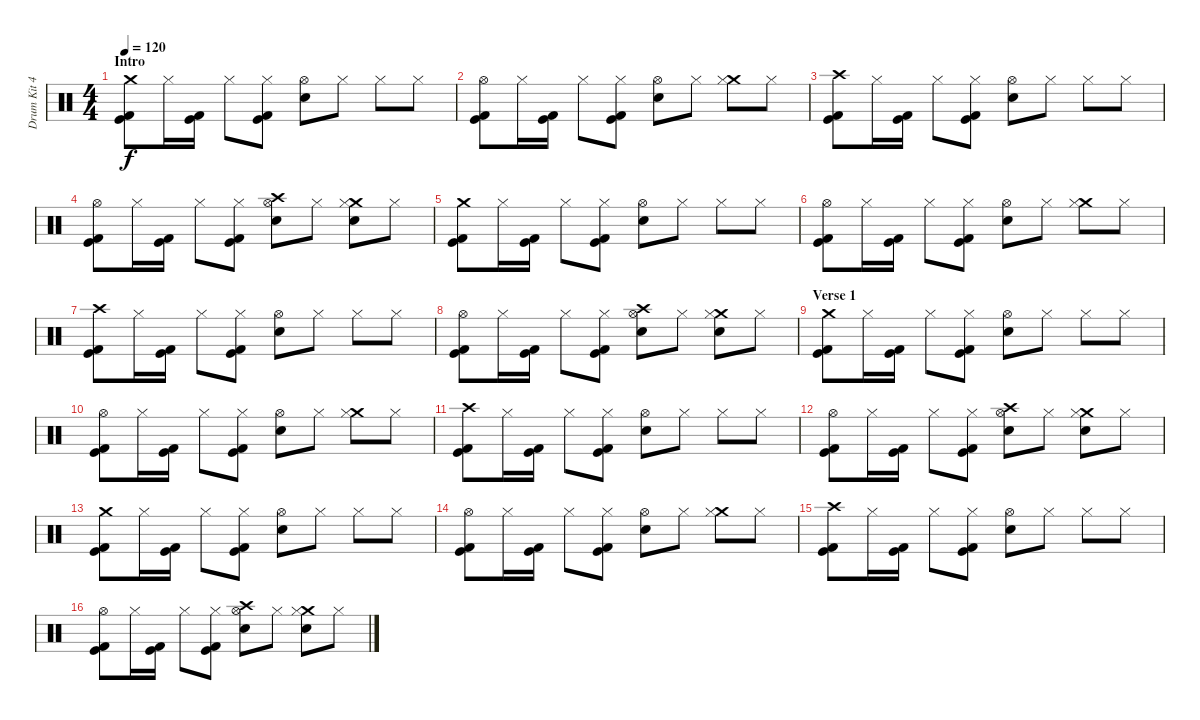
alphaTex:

\track ("Drum Kit 42" "Drum Kit 4") {instrument percussion}
\staff {score}
\articulation defaults
\ts (4 4)
\section ("" "Intro")
\tempo 120
\clef neutral
\ks c
("Crash medium (hit)" "Kick (hit)" "Kick (hit) 2").8{dy f} "Hi-Hat (closed)".16 ("Kick (hit)" "Kick (hit) 2").16 "Hi-Hat (closed)".8 ("Hi-Hat (closed)" "Kick (hit)" "Kick (hit) 2").8 ("Hi-Hat (open)" "Snare (hit) 2").8 "Hi-Hat (closed)".8 "Hi-Hat (closed)".8 "Hi-Hat (closed)".8 |
("Hi-Hat (open)" "Kick (hit)" "Kick (hit) 2").8 "Hi-Hat (closed)".16 ("Kick (hit)" "Kick (hit) 2").16 "Hi-Hat (closed)".8 ("Hi-Hat (closed)" "Kick (hit)" "Kick (hit) 2").8 ("Hi-Hat (open)" "Snare (hit) 2").8 "Hi-Hat (closed)".8 ("Crash medium (hit)" "Hi-Hat (closed)").8 "Hi-Hat (closed)".8 |
("Crash high (hit)" "Kick (hit)" "Kick (hit) 2").8 "Hi-Hat (closed)".16 ("Kick (hit)" "Kick (hit) 2").16 "Hi-Hat (closed)".8 ("Hi-Hat (closed)" "Kick (hit)" "Kick (hit) 2").8 ("Hi-Hat (open)" "Snare (hit) 2").8 "Hi-Hat (closed)".8 "Hi-Hat (closed)".8 "Hi-Hat (closed)".8 |
("Hi-Hat (open)" "Kick (hit)" "Kick (hit) 2").8 "Hi-Hat (closed)".16 ("Kick (hit)" "Kick (hit) 2").16 "Hi-Hat (closed)".8 ("Hi-Hat (closed)" "Kick (hit)" "Kick (hit) 2").8 ("Crash high (hit)" "Hi-Hat (open)" "Snare (hit) 2").8 "Hi-Hat (closed)".8 ("Crash medium (hit)" "Hi-Hat (closed)" "Snare (hit) 2").8 "Hi-Hat (closed)".8 |
("Crash medium (hit)" "Kick (hit)" "Kick (hit) 2").8 "Hi-Hat (closed)".16 ("Kick (hit)" "Kick (hit) 2").16 "Hi-Hat (closed)".8 ("Hi-Hat (closed)" "Kick (hit)" "Kick (hit) 2").8 ("Hi-Hat (open)" "Snare (hit) 2").8 "Hi-Hat (closed)".8 "Hi-Hat (closed)".8 "Hi-Hat (closed)".8 |
("Hi-Hat (open)" "Kick (hit)" "Kick (hit) 2").8 "Hi-Hat (closed)".16 ("Kick (hit)" "Kick (hit) 2").16 "Hi-Hat (closed)".8 ("Hi-Hat (closed)" "Kick (hit)" "Kick (hit) 2").8 ("Hi-Hat (open)" "Snare (hit) 2").8 "Hi-Hat (closed)".8 ("Crash medium (hit)" "Hi-Hat (closed)").8 "Hi-Hat (closed)".8 |
("Crash high (hit)" "Kick (hit)" "Kick (hit) 2").8 "Hi-Hat (closed)".16 ("Kick (hit)" "Kick (hit) 2").16 "Hi-Hat (closed)".8 ("Hi-Hat (closed)" "Kick (hit)" "Kick (hit) 2").8 ("Hi-Hat (open)" "Snare (hit) 2").8 "Hi-Hat (closed)".8 "Hi-Hat (closed)".8 "Hi-Hat (closed)".8 |
("Hi-Hat (open)" "Kick (hit)" "Kick (hit) 2").8 "Hi-Hat (closed)".16 ("Kick (hit)" "Kick (hit) 2").16 "Hi-Hat (closed)".8 ("Hi-Hat (closed)" "Kick (hit)" "Kick (hit) 2").8 ("Crash high (hit)" "Hi-Hat (open)" "Snare (hit) 2").8 "Hi-Hat (closed)".8 ("Crash medium (hit)" "Hi-Hat (closed)" "Snare (hit) 2").8 "Hi-Hat (closed)".8 |
\section ("" "Verse 1")
("Crash medium (hit)" "Kick (hit)" "Kick (hit) 2").8 "Hi-Hat (closed)".16 ("Kick (hit)" "Kick (hit) 2").16 "Hi-Hat (closed)".8 ("Hi-Hat (closed)" "Kick (hit)" "Kick (hit) 2").8 ("Hi-Hat (open)" "Snare (hit) 2").8 "Hi-Hat (closed)".8 "Hi-Hat (closed)".8 "Hi-Hat (closed)".8 |
("Hi-Hat (open)" "Kick (hit)" "Kick (hit) 2").8 "Hi-Hat (closed)".16 ("Kick (hit)" "Kick (hit) 2").16 "Hi-Hat (closed)".8 ("Hi-Hat (closed)" "Kick (hit)" "Kick (hit) 2").8 ("Hi-Hat (open)" "Snare (hit) 2").8 "Hi-Hat (closed)".8 ("Crash medium (hit)" "Hi-Hat (closed)").8 "Hi-Hat (closed)".8 |
("Crash high (hit)" "Kick (hit)" "Kick (hit) 2").8 "Hi-Hat (closed)".16 ("Kick (hit)" "Kick (hit) 2").16 "Hi-Hat (closed)".8 ("Hi-Hat (closed)" "Kick (hit)" "Kick (hit) 2").8 ("Hi-Hat (open)" "Snare (hit) 2").8 "Hi-Hat (closed)".8 "Hi-Hat (closed)".8 "Hi-Hat (closed)".8 |
("Hi-Hat (open)" "Kick (hit)" "Kick (hit) 2").8 "Hi-Hat (closed)".16 ("Kick (hit)" "Kick (hit) 2").16 "Hi-Hat (closed)".8 ("Hi-Hat (closed)" "Kick (hit)" "Kick (hit) 2").8 ("Crash high (hit)" "Hi-Hat (open)" "Snare (hit) 2").8 "Hi-Hat (closed)".8 ("Crash medium (hit)" "Hi-Hat (closed)" "Snare (hit) 2").8 "Hi-Hat (closed)".8 |
("Crash medium (hit)" "Kick (hit)" "Kick (hit) 2").8 "Hi-Hat (closed)".16 ("Kick (hit)" "Kick (hit) 2").16 "Hi-Hat (closed)".8 ("Hi-Hat (closed)" "Kick (hit)" "Kick (hit) 2").8 ("Hi-Hat (open)" "Snare (hit) 2").8 "Hi-Hat (closed)".8 "Hi-Hat (closed)".8 "Hi-Hat (closed)".8 |
("Hi-Hat (open)" "Kick (hit)" "Kick (hit) 2").8 "Hi-Hat (closed)".16 ("Kick (hit)" "Kick (hit) 2").16 "Hi-Hat (closed)".8 ("Hi-Hat (closed)" "Kick (hit)" "Kick (hit) 2").8 ("Hi-Hat (open)" "Snare (hit) 2").8 "Hi-Hat (closed)".8 ("Crash medium (hit)" "Hi-Hat (closed)").8 "Hi-Hat (closed)".8 |
("Crash high (hit)" "Kick (hit)" "Kick (hit) 2").8 "Hi-Hat (closed)".16 ("Kick (hit)" "Kick (hit) 2").16 "Hi-Hat (closed)".8 ("Hi-Hat (closed)" "Kick (hit)" "Kick (hit) 2").8 ("Hi-Hat (open)" "Snare (hit) 2").8 "Hi-Hat (closed)".8 "Hi-Hat (closed)".8 "Hi-Hat (closed)".8 |
("Hi-Hat (open)" "Kick (hit)" "Kick (hit) 2").8 "Hi-Hat (closed)".16 ("Kick (hit)" "Kick (hit) 2").16 "Hi-Hat (closed)".8 ("Hi-Hat (closed)" "Kick (hit)" "Kick (hit) 2").8 ("Crash high (hit)" "Hi-Hat (open)" "Snare (hit) 2").8 "Hi-Hat (closed)".8 ("Crash medium (hit)" "Hi-Hat (closed)" "Snare (hit) 2").8 "Hi-Hat (closed)".8
